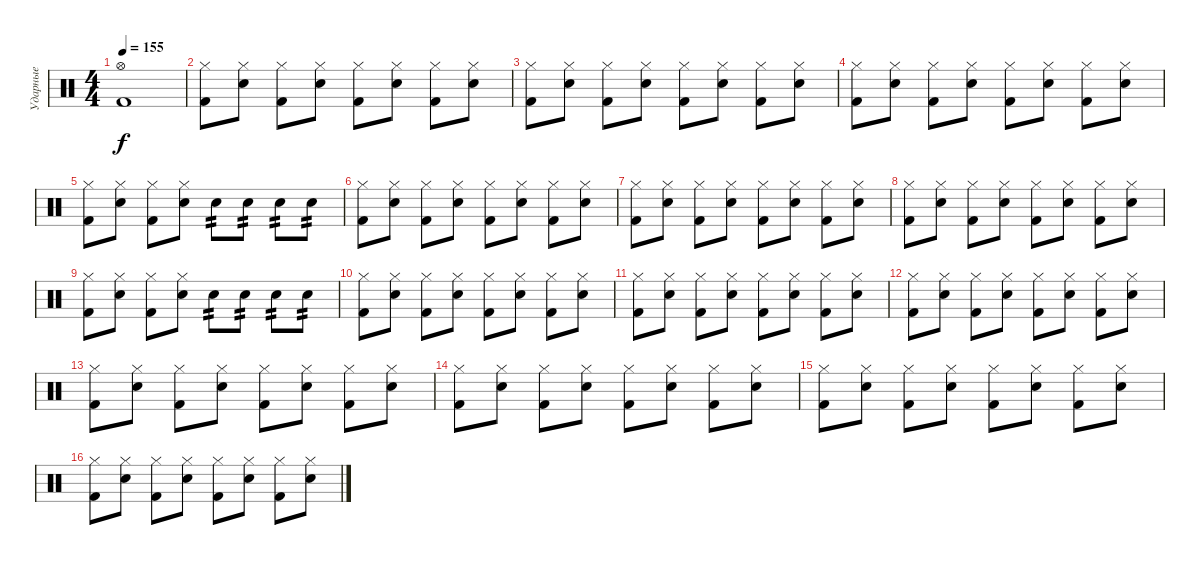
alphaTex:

\track ("Ударные" "Ударные") {instrument percussion}
\staff {score}
\articulation defaults
\ts (4 4)
\tempo 155
\clef neutral
\ks c
("Hi-Hat (open)" "Kick (hit) 2").1{dy f} |
("Hi-Hat (closed)" "Kick (hit) 2").8 ("Hi-Hat (closed)" "Electric Snare (hit)").8 ("Hi-Hat (closed)" "Kick (hit) 2").8 ("Hi-Hat (closed)" "Electric Snare (hit)").8 ("Hi-Hat (closed)" "Kick (hit) 2").8 ("Hi-Hat (closed)" "Electric Snare (hit)").8 ("Hi-Hat (closed)" "Kick (hit) 2").8 ("Hi-Hat (closed)" "Electric Snare (hit)").8 |
("Hi-Hat (closed)" "Kick (hit) 2").8 ("Hi-Hat (closed)" "Electric Snare (hit)").8 ("Hi-Hat (closed)" "Kick (hit) 2").8 ("Hi-Hat (closed)" "Electric Snare (hit)").8 ("Hi-Hat (closed)" "Kick (hit) 2").8 ("Hi-Hat (closed)" "Electric Snare (hit)").8 ("Hi-Hat (closed)" "Kick (hit) 2").8 ("Hi-Hat (closed)" "Electric Snare (hit)").8 |
("Hi-Hat (closed)" "Kick (hit) 2").8 ("Hi-Hat (closed)" "Electric Snare (hit)").8 ("Hi-Hat (closed)" "Kick (hit) 2").8 ("Hi-Hat (closed)" "Electric Snare (hit)").8 ("Hi-Hat (closed)" "Kick (hit) 2").8 ("Hi-Hat (closed)" "Electric Snare (hit)").8 ("Hi-Hat (closed)" "Kick (hit) 2").8 ("Hi-Hat (closed)" "Electric Snare (hit)").8 |
("Hi-Hat (closed)" "Kick (hit) 2").8 ("Hi-Hat (closed)" "Electric Snare (hit)").8 ("Hi-Hat (closed)" "Kick (hit) 2").8 ("Hi-Hat (closed)" "Electric Snare (hit)").8 "Electric Snare (hit)".8{tp 2} "Electric Snare (hit)".8{tp 2} "Electric Snare (hit)".8{tp 2} "Electric Snare (hit)".8{tp 2} |
("Hi-Hat (closed)" "Kick (hit) 2").8 ("Hi-Hat (closed)" "Electric Snare (hit)").8 ("Hi-Hat (closed)" "Kick (hit) 2").8 ("Hi-Hat (closed)" "Electric Snare (hit)").8 ("Hi-Hat (closed)" "Kick (hit) 2").8 ("Hi-Hat (closed)" "Electric Snare (hit)").8 ("Hi-Hat (closed)" "Kick (hit) 2").8 ("Hi-Hat (closed)" "Electric Snare (hit)").8 |
("Hi-Hat (closed)" "Kick (hit) 2").8 ("Hi-Hat (closed)" "Electric Snare (hit)").8 ("Hi-Hat (closed)" "Kick (hit) 2").8 ("Hi-Hat (closed)" "Electric Snare (hit)").8 ("Hi-Hat (closed)" "Kick (hit) 2").8 ("Hi-Hat (closed)" "Electric Snare (hit)").8 ("Hi-Hat (closed)" "Kick (hit) 2").8 ("Hi-Hat (closed)" "Electric Snare (hit)").8 |
("Hi-Hat (closed)" "Kick (hit) 2").8 ("Hi-Hat (closed)" "Electric Snare (hit)").8 ("Hi-Hat (closed)" "Kick (hit) 2").8 ("Hi-Hat (closed)" "Electric Snare (hit)").8 ("Hi-Hat (closed)" "Kick (hit) 2").8 ("Hi-Hat (closed)" "Electric Snare (hit)").8 ("Hi-Hat (closed)" "Kick (hit) 2").8 ("Hi-Hat (closed)" "Electric Snare (hit)").8 |
("Hi-Hat (closed)" "Kick (hit) 2").8 ("Hi-Hat (closed)" "Electric Snare (hit)").8 ("Hi-Hat (closed)" "Kick (hit) 2").8 ("Hi-Hat (closed)" "Electric Snare (hit)").8 "Electric Snare (hit)".8{tp 2} "Electric Snare (hit)".8{tp 2} "Electric Snare (hit)".8{tp 2} "Electric Snare (hit)".8{tp 2} |
("Hi-Hat (closed)" "Kick (hit) 2").8 ("Hi-Hat (closed)" "Electric Snare (hit)").8 ("Hi-Hat (closed)" "Kick (hit) 2").8 ("Hi-Hat (closed)" "Electric Snare (hit)").8 ("Hi-Hat (closed)" "Kick (hit) 2").8 ("Hi-Hat (closed)" "Electric Snare (hit)").8 ("Hi-Hat (closed)" "Kick (hit) 2").8 ("Hi-Hat (closed)" "Electric Snare (hit)").8 |
("Hi-Hat (closed)" "Kick (hit) 2").8 ("Hi-Hat (closed)" "Electric Snare (hit)").8 ("Hi-Hat (closed)" "Kick (hit) 2").8 ("Hi-Hat (closed)" "Electric Snare (hit)").8 ("Hi-Hat (closed)" "Kick (hit) 2").8 ("Hi-Hat (closed)" "Electric Snare (hit)").8 ("Hi-Hat (closed)" "Kick (hit) 2").8 ("Hi-Hat (closed)" "Electric Snare (hit)").8 |
("Hi-Hat (closed)" "Kick (hit) 2").8 ("Hi-Hat (closed)" "Electric Snare (hit)").8 ("Hi-Hat (closed)" "Kick (hit) 2").8 ("Hi-Hat (closed)" "Electric Snare (hit)").8 ("Hi-Hat (closed)" "Kick (hit) 2").8 ("Hi-Hat (closed)" "Electric Snare (hit)").8 ("Hi-Hat (closed)" "Kick (hit) 2").8 ("Hi-Hat (closed)" "Electric Snare (hit)").8 |
("Hi-Hat (closed)" "Kick (hit) 2").8 ("Hi-Hat (closed)" "Electric Snare (hit)").8 ("Hi-Hat (closed)" "Kick (hit) 2").8 ("Hi-Hat (closed)" "Electric Snare (hit)").8 ("Hi-Hat (closed)" "Kick (hit) 2").8 ("Hi-Hat (closed)" "Electric Snare (hit)").8 ("Hi-Hat (closed)" "Kick (hit) 2").8 ("Hi-Hat (closed)" "Electric Snare (hit)").8 |
("Hi-Hat (closed)" "Kick (hit) 2").8 ("Hi-Hat (closed)" "Electric Snare (hit)").8 ("Hi-Hat (closed)" "Kick (hit) 2").8 ("Hi-Hat (closed)" "Electric Snare (hit)").8 ("Hi-Hat (closed)" "Kick (hit) 2").8 ("Hi-Hat (closed)" "Electric Snare (hit)").8 ("Hi-Hat (closed)" "Kick (hit) 2").8 ("Hi-Hat (closed)" "Electric Snare (hit)").8 |
("Hi-Hat (closed)" "Kick (hit) 2").8 ("Hi-Hat (closed)" "Electric Snare (hit)").8 ("Hi-Hat (closed)" "Kick (hit) 2").8 ("Hi-Hat (closed)" "Electric Snare (hit)").8 ("Hi-Hat (closed)" "Kick (hit) 2").8 ("Hi-Hat (closed)" "Electric Snare (hit)").8 ("Hi-Hat (closed)" "Kick (hit) 2").8 ("Hi-Hat (closed)" "Electric Snare (hit)").8 |
("Hi-Hat (closed)" "Kick (hit) 2").8 ("Hi-Hat (closed)" "Electric Snare (hit)").8 ("Hi-Hat (closed)" "Kick (hit) 2").8 ("Hi-Hat (closed)" "Electric Snare (hit)").8 ("Hi-Hat (closed)" "Kick (hit) 2").8 ("Hi-Hat (closed)" "Electric Snare (hit)").8 ("Hi-Hat (closed)" "Kick (hit) 2").8 ("Hi-Hat (closed)" "Electric Snare (hit)").8
